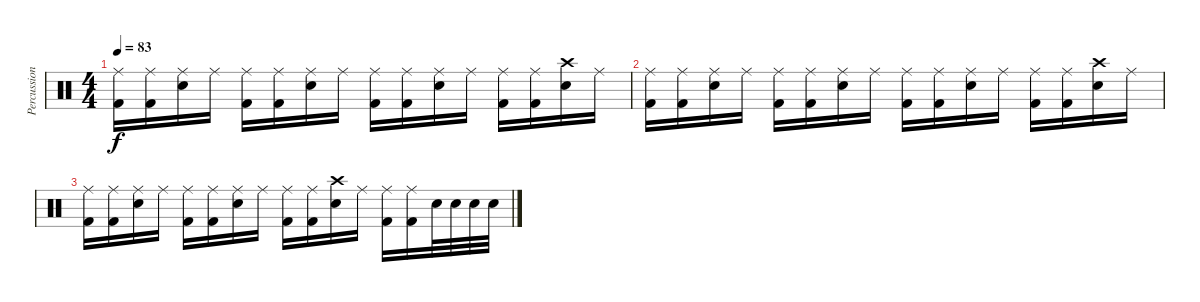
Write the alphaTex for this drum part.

\track ("Percussions" "Percussion") {instrument percussion}
\staff {score}
\articulation defaults
\ts (4 4)
\tempo 83
\clef neutral
\ks c
("Ride (middle)" "Kick (hit) 2").16{dy f} ("Ride (middle)" "Kick (hit) 2").16 ("Ride (middle)" "Electric Snare (hit)").16 "Ride (middle)".16 ("Ride (middle)" "Kick (hit) 2").16 ("Ride (middle)" "Kick (hit) 2").16 ("Ride (middle)" "Electric Snare (hit)").16 "Ride (middle)".16 ("Ride (middle)" "Kick (hit) 2").16 ("Ride (middle)" "Kick (hit) 2").16 ("Ride (middle)" "Electric Snare (hit)").16 "Ride (middle)".16 ("Ride (middle)" "Kick (hit) 2").16 ("Ride (middle)" "Kick (hit) 2").16 ("Crash high (hit)" "Electric Snare (hit)").16 "Ride (middle)".16 |
("Ride (middle)" "Kick (hit) 2").16 ("Ride (middle)" "Kick (hit) 2").16 ("Ride (middle)" "Electric Snare (hit)").16 "Ride (middle)".16 ("Ride (middle)" "Kick (hit) 2").16 ("Ride (middle)" "Kick (hit) 2").16 ("Ride (middle)" "Electric Snare (hit)").16 "Ride (middle)".16 ("Ride (middle)" "Kick (hit) 2").16 ("Ride (middle)" "Kick (hit) 2").16 ("Ride (middle)" "Electric Snare (hit)").16 "Ride (middle)".16 ("Ride (middle)" "Kick (hit) 2").16 ("Ride (middle)" "Kick (hit) 2").16 ("Crash high (hit)" "Electric Snare (hit)").16 "Ride (middle)".16 |
("Ride (middle)" "Kick (hit) 2").16 ("Ride (middle)" "Kick (hit) 2").16 ("Ride (middle)" "Electric Snare (hit)").16 "Ride (middle)".16 ("Ride (middle)" "Kick (hit) 2").16 ("Ride (middle)" "Kick (hit) 2").16 ("Ride (middle)" "Electric Snare (hit)").16 "Ride (middle)".16 ("Ride (middle)" "Kick (hit) 2").16 ("Ride (middle)" "Kick (hit) 2").16 ("Crash high (hit)" "Electric Snare (hit)").16 "Ride (middle)".16 ("Ride (middle)" "Kick (hit) 2").16 ("Ride (middle)" "Kick (hit) 2").16 "Electric Snare (hit)".32 "Electric Snare (hit)".32 "Electric Snare (hit)".32 "Electric Snare (hit)".32
